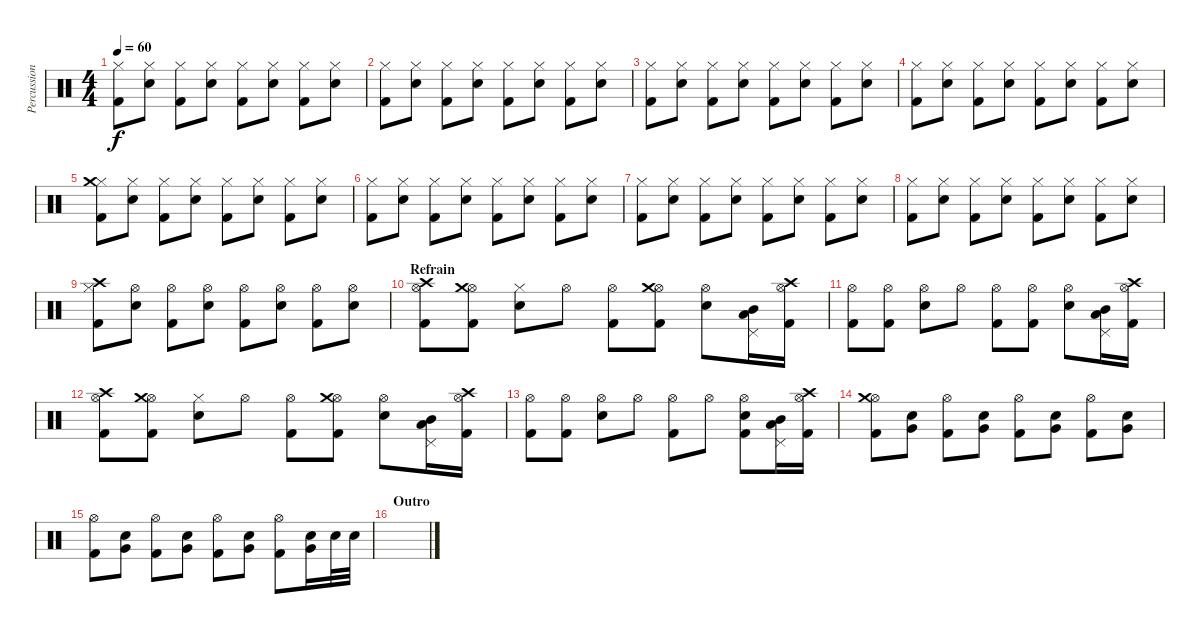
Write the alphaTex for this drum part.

\track ("Percussion" "Percussion") {instrument percussion}
\staff {score}
\articulation defaults
\ts (4 4)
\tempo 60
\clef neutral
\ks c
("Hi-Hat (closed)" "Kick (hit) 2").8{dy f} ("Hi-Hat (closed)" "Electric Snare (hit)").8 ("Hi-Hat (closed)" "Kick (hit) 2").8 ("Hi-Hat (closed)" "Electric Snare (hit)").8 ("Hi-Hat (closed)" "Kick (hit) 2").8 ("Hi-Hat (closed)" "Electric Snare (hit)").8 ("Hi-Hat (closed)" "Kick (hit) 2").8 ("Hi-Hat (closed)" "Electric Snare (hit)").8 |
("Hi-Hat (closed)" "Kick (hit) 2").8 ("Hi-Hat (closed)" "Electric Snare (hit)").8 ("Hi-Hat (closed)" "Kick (hit) 2").8 ("Hi-Hat (closed)" "Electric Snare (hit)").8 ("Hi-Hat (closed)" "Kick (hit) 2").8 ("Hi-Hat (closed)" "Electric Snare (hit)").8 ("Hi-Hat (closed)" "Kick (hit) 2").8 ("Hi-Hat (closed)" "Electric Snare (hit)").8 |
("Hi-Hat (closed)" "Kick (hit) 2").8 ("Hi-Hat (closed)" "Electric Snare (hit)").8 ("Hi-Hat (closed)" "Kick (hit) 2").8 ("Hi-Hat (closed)" "Electric Snare (hit)").8 ("Hi-Hat (closed)" "Kick (hit) 2").8 ("Hi-Hat (closed)" "Electric Snare (hit)").8 ("Hi-Hat (closed)" "Kick (hit) 2").8 ("Hi-Hat (closed)" "Electric Snare (hit)").8 |
("Hi-Hat (closed)" "Kick (hit) 2").8 ("Hi-Hat (closed)" "Electric Snare (hit)").8 ("Hi-Hat (closed)" "Kick (hit) 2").8 ("Hi-Hat (closed)" "Electric Snare (hit)").8 ("Hi-Hat (closed)" "Kick (hit) 2").8 ("Hi-Hat (closed)" "Electric Snare (hit)").8 ("Hi-Hat (closed)" "Kick (hit) 2").8 ("Hi-Hat (closed)" "Electric Snare (hit)").8 |
("Hi-Hat (closed)" "Crash medium (hit)" "Kick (hit) 2").8 ("Hi-Hat (closed)" "Electric Snare (hit)").8 ("Hi-Hat (closed)" "Kick (hit) 2").8 ("Hi-Hat (closed)" "Electric Snare (hit)").8 ("Hi-Hat (closed)" "Kick (hit) 2").8 ("Hi-Hat (closed)" "Electric Snare (hit)").8 ("Hi-Hat (closed)" "Kick (hit) 2").8 ("Hi-Hat (closed)" "Electric Snare (hit)").8 |
("Hi-Hat (closed)" "Kick (hit) 2").8 ("Hi-Hat (closed)" "Electric Snare (hit)").8 ("Hi-Hat (closed)" "Kick (hit) 2").8 ("Hi-Hat (closed)" "Electric Snare (hit)").8 ("Hi-Hat (closed)" "Kick (hit) 2").8 ("Hi-Hat (closed)" "Electric Snare (hit)").8 ("Hi-Hat (closed)" "Kick (hit) 2").8 ("Hi-Hat (closed)" "Electric Snare (hit)").8 |
("Hi-Hat (closed)" "Kick (hit) 2").8 ("Hi-Hat (closed)" "Electric Snare (hit)").8 ("Hi-Hat (closed)" "Kick (hit) 2").8 ("Hi-Hat (closed)" "Electric Snare (hit)").8 ("Hi-Hat (closed)" "Kick (hit) 2").8 ("Hi-Hat (closed)" "Electric Snare (hit)").8 ("Hi-Hat (closed)" "Kick (hit) 2").8 ("Hi-Hat (closed)" "Electric Snare (hit)").8 |
("Hi-Hat (closed)" "Kick (hit) 2").8 ("Hi-Hat (closed)" "Electric Snare (hit)").8 ("Hi-Hat (closed)" "Kick (hit) 2").8 ("Hi-Hat (closed)" "Electric Snare (hit)").8 ("Hi-Hat (closed)" "Kick (hit) 2").8 ("Hi-Hat (closed)" "Electric Snare (hit)").8 ("Hi-Hat (closed)" "Kick (hit) 2").8 ("Hi-Hat (closed)" "Electric Snare (hit)").8 |
("Hi-Hat (closed)" "Crash high (hit)" "Kick (hit) 2").8 ("Hi-Hat (open)" "Electric Snare (hit)").8 ("Hi-Hat (open)" "Kick (hit) 2").8 ("Hi-Hat (open)" "Electric Snare (hit)").8 ("Hi-Hat (open)" "Kick (hit) 2").8 ("Hi-Hat (open)" "Electric Snare (hit)").8 ("Hi-Hat (open)" "Kick (hit) 2").8 ("Hi-Hat (open)" "Electric Snare (hit)").8 |
\section ("" "Refrain")
("Hi-Hat (open)" "Crash high (hit)" "Kick (hit) 2").8 ("Hi-Hat (open)" "Crash medium (hit)" "Kick (hit) 2").8 ("Hi-Hat (closed)" "Electric Snare (hit)").8 "Hi-Hat (open)".8 ("Hi-Hat (open)" "Kick (hit) 2").8 ("Hi-Hat (open)" "Crash medium (hit)" "Kick (hit) 2").8 ("Hi-Hat (open)" "Electric Snare (hit)").8 ("Pedal Hi-Hat (hit)" "Mid Tom (hit)" "Low Tom (hit)").16 ("Hi-Hat (open)" "Crash high (hit)" "Kick (hit) 2").16 |
("Hi-Hat (open)" "Kick (hit) 2").8 ("Hi-Hat (open)" "Kick (hit) 2").8 ("Hi-Hat (open)" "Electric Snare (hit)").8 "Hi-Hat (open)".8 ("Hi-Hat (open)" "Kick (hit) 2").8 ("Hi-Hat (open)" "Kick (hit) 2").8 ("Hi-Hat (open)" "Electric Snare (hit)").8 ("Pedal Hi-Hat (hit)" "Mid Tom (hit)" "Low Tom (hit)").16 ("Hi-Hat (open)" "Crash high (hit)" "Kick (hit) 2").16 |
("Hi-Hat (open)" "Crash high (hit)" "Kick (hit) 2").8 ("Hi-Hat (open)" "Crash medium (hit)" "Kick (hit) 2").8 ("Hi-Hat (closed)" "Electric Snare (hit)").8 "Hi-Hat (open)".8 ("Hi-Hat (open)" "Kick (hit) 2").8 ("Hi-Hat (open)" "Crash medium (hit)" "Kick (hit) 2").8 ("Hi-Hat (open)" "Electric Snare (hit)").8 ("Pedal Hi-Hat (hit)" "Mid Tom (hit)" "Low Tom (hit)").16 ("Hi-Hat (open)" "Crash high (hit)" "Kick (hit) 2").16 |
("Hi-Hat (open)" "Kick (hit) 2").8 ("Hi-Hat (open)" "Kick (hit) 2").8 ("Hi-Hat (open)" "Electric Snare (hit)").8 "Hi-Hat (open)".8 ("Hi-Hat (open)" "Kick (hit) 2").8 "Hi-Hat (open)".8 ("Hi-Hat (open)" "Electric Snare (hit)" "Kick (hit) 2").8 ("Pedal Hi-Hat (hit)" "Mid Tom (hit)" "Low Tom (hit)").16 ("Hi-Hat (open)" "Crash high (hit)" "Kick (hit) 2").16 |
("Hi-Hat (open)" "Crash medium (hit)" "Kick (hit) 2").8 ("Very Low Tom (hit)" "Electric Snare (hit)").8 ("Hi-Hat (open)" "Kick (hit) 2").8 ("Very Low Tom (hit)" "Electric Snare (hit)").8 ("Hi-Hat (open)" "Kick (hit) 2").8 ("Very Low Tom (hit)" "Electric Snare (hit)").8 ("Hi-Hat (open)" "Kick (hit) 2").8 ("Very Low Tom (hit)" "Electric Snare (hit)").8 |
("Hi-Hat (open)" "Kick (hit) 2").8 ("Very Low Tom (hit)" "Electric Snare (hit)").8 ("Hi-Hat (open)" "Kick (hit) 2").8 ("Very Low Tom (hit)" "Electric Snare (hit)").8 ("Hi-Hat (open)" "Kick (hit) 2").8 ("Very Low Tom (hit)" "Electric Snare (hit)").8 ("Hi-Hat (open)" "Kick (hit) 2").8 ("Very Low Tom (hit)" "Electric Snare (hit)").16 "Electric Snare (hit)".32 "Electric Snare (hit)".32 |
\section ("" "Outro")
